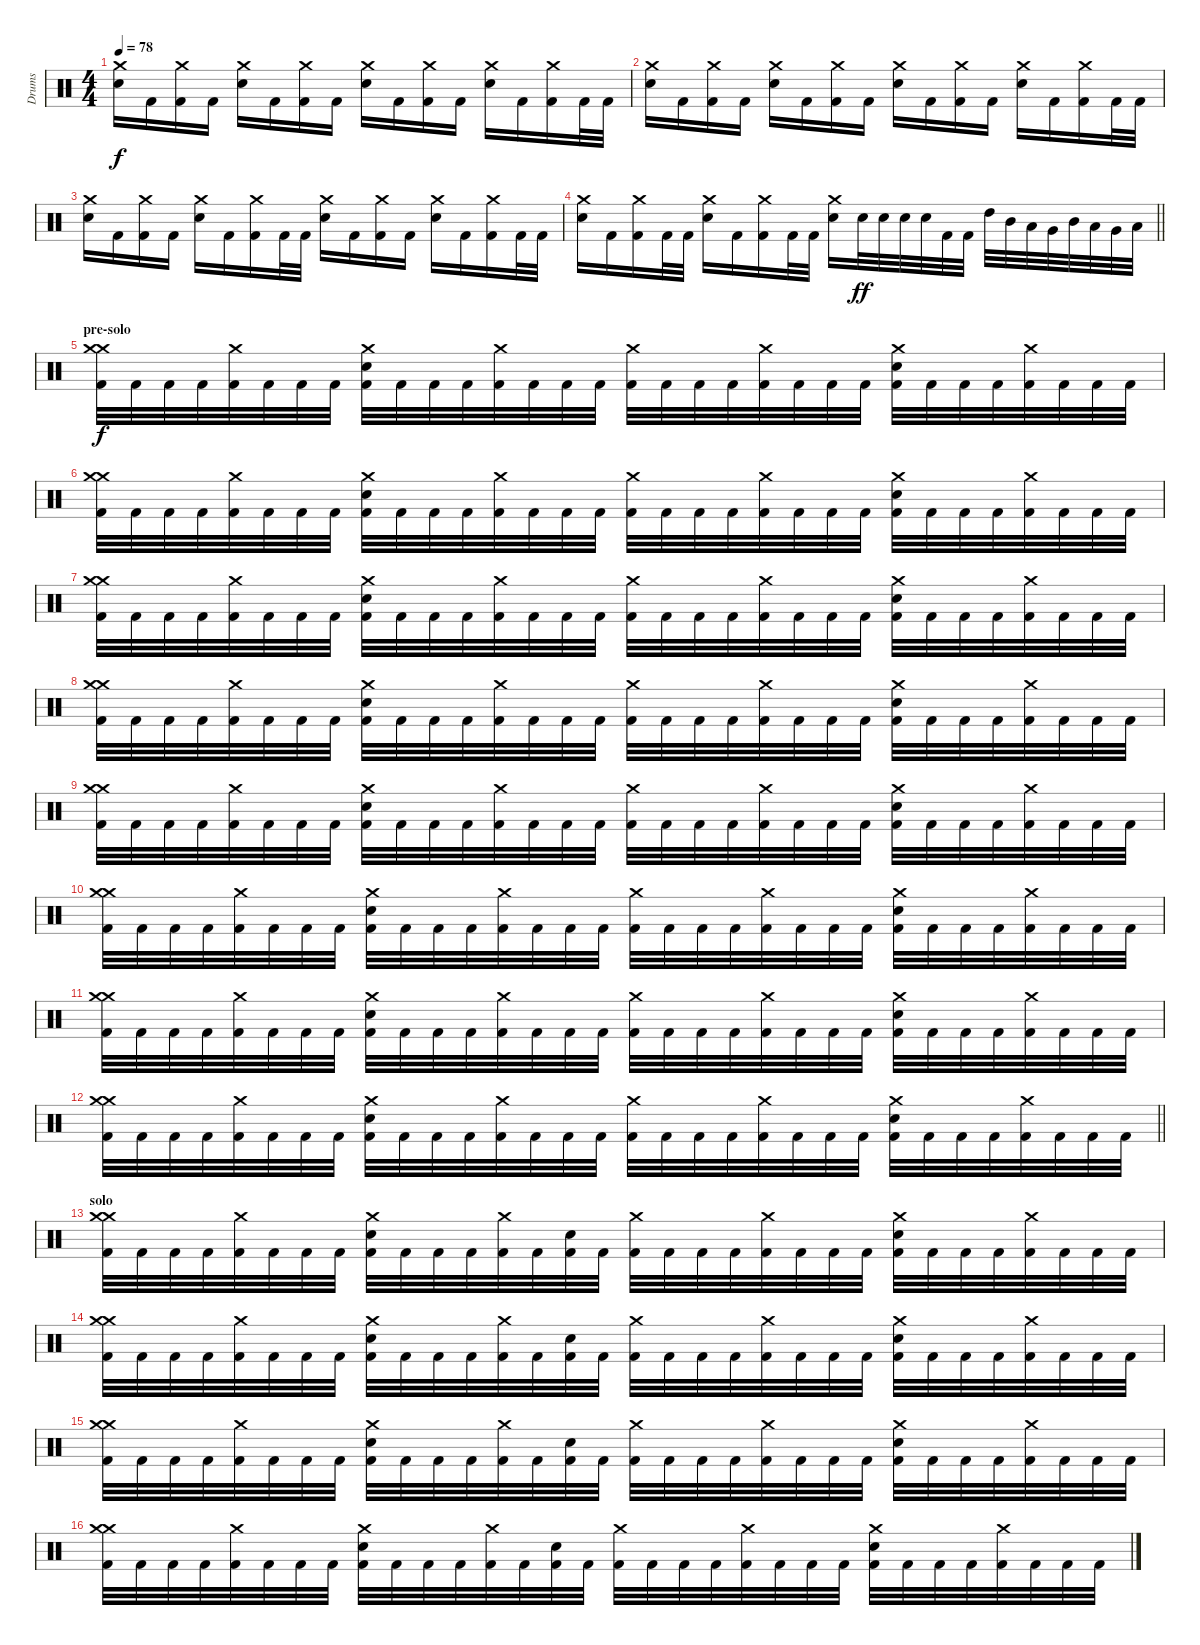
\track ("Drums" "Drums") {instrument percussion}
\staff {score}
\articulation defaults
\ts (4 4)
\tempo 78
\clef neutral
\ks c
("Electric Snare (hit)" "Crash medium (hit)").16{dy f} "Kick (hit) 2".16 ("Kick (hit) 2" "Crash medium (hit)").16 "Kick (hit) 2".16 ("Electric Snare (hit)" "Crash medium (hit)").16 "Kick (hit) 2".16 ("Kick (hit) 2" "Crash medium (hit)").16 "Kick (hit) 2".16 ("Electric Snare (hit)" "Crash medium (hit)").16 "Kick (hit) 2".16 ("Kick (hit) 2" "Crash medium (hit)").16 "Kick (hit) 2".16 ("Electric Snare (hit)" "Crash medium (hit)").16 "Kick (hit) 2".16 ("Kick (hit) 2" "Crash medium (hit)").16 "Kick (hit) 2".32 "Kick (hit) 2".32 |
("Electric Snare (hit)" "Crash medium (hit)").16 "Kick (hit) 2".16 ("Kick (hit) 2" "Crash medium (hit)").16 "Kick (hit) 2".16 ("Electric Snare (hit)" "Crash medium (hit)").16 "Kick (hit) 2".16 ("Kick (hit) 2" "Crash medium (hit)").16 "Kick (hit) 2".16 ("Electric Snare (hit)" "Crash medium (hit)").16 "Kick (hit) 2".16 ("Kick (hit) 2" "Crash medium (hit)").16 "Kick (hit) 2".16 ("Electric Snare (hit)" "Crash medium (hit)").16 "Kick (hit) 2".16 ("Kick (hit) 2" "Crash medium (hit)").16 "Kick (hit) 2".32 "Kick (hit) 2".32 |
("Electric Snare (hit)" "Crash medium (hit)").16 "Kick (hit) 2".16 ("Kick (hit) 2" "Crash medium (hit)").16 "Kick (hit) 2".16 ("Electric Snare (hit)" "Crash medium (hit)").16 "Kick (hit) 2".16 ("Kick (hit) 2" "Crash medium (hit)").16 "Kick (hit) 2".32 "Kick (hit) 2".32 ("Electric Snare (hit)" "Crash medium (hit)").16 "Kick (hit) 2".16 ("Kick (hit) 2" "Crash medium (hit)").16 "Kick (hit) 2".16 ("Electric Snare (hit)" "Crash medium (hit)").16 "Kick (hit) 2".16 ("Kick (hit) 2" "Crash medium (hit)").16 "Kick (hit) 2".32 "Kick (hit) 2".32 |
\barLineRight lightlight
("Electric Snare (hit)" "Crash medium (hit)").16 "Kick (hit) 2".16 ("Kick (hit) 2" "Crash medium (hit)").16 "Kick (hit) 2".32 "Kick (hit) 2".32 ("Electric Snare (hit)" "Crash medium (hit)").16 "Kick (hit) 2".16 ("Kick (hit) 2" "Crash medium (hit)").16 "Kick (hit) 2".32 "Kick (hit) 2".32 ("Electric Snare (hit)" "Crash medium (hit)").16 "Electric Snare (hit)".32{dy ff} "Electric Snare (hit)".32 "Electric Snare (hit)".32 "Electric Snare (hit)".32 "Kick (hit) 2".32 "Kick (hit) 2".32 "High Tom (hit)".32 "Mid Tom (hit)".32 "Low Tom (hit)".32 "Very Low Tom (hit)".32 "Mid Tom (hit)".32 "Low Tom (hit)".32 "Very Low Tom (hit)".32 "Low Floor Tom (hit)".32 |
\section ("" "pre-solo")
("Crash medium (hit)" "Kick (hit) 2" "Crash medium (hit)").32{dy f} "Kick (hit) 2".32 "Kick (hit) 2".32 "Kick (hit) 2".32 ("Kick (hit) 2" "Crash medium (hit)").32 "Kick (hit) 2".32 "Kick (hit) 2".32 "Kick (hit) 2".32 ("Electric Snare (hit)" "Kick (hit) 2" "Crash medium (hit)").32 "Kick (hit) 2".32 "Kick (hit) 2".32 "Kick (hit) 2".32 ("Kick (hit) 2" "Crash medium (hit)").32 "Kick (hit) 2".32 "Kick (hit) 2".32 "Kick (hit) 2".32 ("Kick (hit) 2" "Crash medium (hit)").32 "Kick (hit) 2".32 "Kick (hit) 2".32 "Kick (hit) 2".32 ("Kick (hit) 2" "Crash medium (hit)").32 "Kick (hit) 2".32 "Kick (hit) 2".32 "Kick (hit) 2".32 ("Electric Snare (hit)" "Kick (hit) 2" "Crash medium (hit)").32 "Kick (hit) 2".32 "Kick (hit) 2".32 "Kick (hit) 2".32 ("Kick (hit) 2" "Crash medium (hit)").32 "Kick (hit) 2".32 "Kick (hit) 2".32 "Kick (hit) 2".32 |
("Crash medium (hit)" "Kick (hit) 2" "Crash medium (hit)").32 "Kick (hit) 2".32 "Kick (hit) 2".32 "Kick (hit) 2".32 ("Kick (hit) 2" "Crash medium (hit)").32 "Kick (hit) 2".32 "Kick (hit) 2".32 "Kick (hit) 2".32 ("Electric Snare (hit)" "Kick (hit) 2" "Crash medium (hit)").32 "Kick (hit) 2".32 "Kick (hit) 2".32 "Kick (hit) 2".32 ("Kick (hit) 2" "Crash medium (hit)").32 "Kick (hit) 2".32 "Kick (hit) 2".32 "Kick (hit) 2".32 ("Kick (hit) 2" "Crash medium (hit)").32 "Kick (hit) 2".32 "Kick (hit) 2".32 "Kick (hit) 2".32 ("Kick (hit) 2" "Crash medium (hit)").32 "Kick (hit) 2".32 "Kick (hit) 2".32 "Kick (hit) 2".32 ("Electric Snare (hit)" "Kick (hit) 2" "Crash medium (hit)").32 "Kick (hit) 2".32 "Kick (hit) 2".32 "Kick (hit) 2".32 ("Kick (hit) 2" "Crash medium (hit)").32 "Kick (hit) 2".32 "Kick (hit) 2".32 "Kick (hit) 2".32 |
("Crash medium (hit)" "Kick (hit) 2" "Crash medium (hit)").32 "Kick (hit) 2".32 "Kick (hit) 2".32 "Kick (hit) 2".32 ("Kick (hit) 2" "Crash medium (hit)").32 "Kick (hit) 2".32 "Kick (hit) 2".32 "Kick (hit) 2".32 ("Electric Snare (hit)" "Kick (hit) 2" "Crash medium (hit)").32 "Kick (hit) 2".32 "Kick (hit) 2".32 "Kick (hit) 2".32 ("Kick (hit) 2" "Crash medium (hit)").32 "Kick (hit) 2".32 "Kick (hit) 2".32 "Kick (hit) 2".32 ("Kick (hit) 2" "Crash medium (hit)").32 "Kick (hit) 2".32 "Kick (hit) 2".32 "Kick (hit) 2".32 ("Kick (hit) 2" "Crash medium (hit)").32 "Kick (hit) 2".32 "Kick (hit) 2".32 "Kick (hit) 2".32 ("Electric Snare (hit)" "Kick (hit) 2" "Crash medium (hit)").32 "Kick (hit) 2".32 "Kick (hit) 2".32 "Kick (hit) 2".32 ("Kick (hit) 2" "Crash medium (hit)").32 "Kick (hit) 2".32 "Kick (hit) 2".32 "Kick (hit) 2".32 |
("Crash medium (hit)" "Kick (hit) 2" "Crash medium (hit)").32 "Kick (hit) 2".32 "Kick (hit) 2".32 "Kick (hit) 2".32 ("Kick (hit) 2" "Crash medium (hit)").32 "Kick (hit) 2".32 "Kick (hit) 2".32 "Kick (hit) 2".32 ("Electric Snare (hit)" "Kick (hit) 2" "Crash medium (hit)").32 "Kick (hit) 2".32 "Kick (hit) 2".32 "Kick (hit) 2".32 ("Kick (hit) 2" "Crash medium (hit)").32 "Kick (hit) 2".32 "Kick (hit) 2".32 "Kick (hit) 2".32 ("Kick (hit) 2" "Crash medium (hit)").32 "Kick (hit) 2".32 "Kick (hit) 2".32 "Kick (hit) 2".32 ("Kick (hit) 2" "Crash medium (hit)").32 "Kick (hit) 2".32 "Kick (hit) 2".32 "Kick (hit) 2".32 ("Electric Snare (hit)" "Kick (hit) 2" "Crash medium (hit)").32 "Kick (hit) 2".32 "Kick (hit) 2".32 "Kick (hit) 2".32 ("Kick (hit) 2" "Crash medium (hit)").32 "Kick (hit) 2".32 "Kick (hit) 2".32 "Kick (hit) 2".32 |
("Crash medium (hit)" "Kick (hit) 2" "Crash medium (hit)").32 "Kick (hit) 2".32 "Kick (hit) 2".32 "Kick (hit) 2".32 ("Kick (hit) 2" "Crash medium (hit)").32 "Kick (hit) 2".32 "Kick (hit) 2".32 "Kick (hit) 2".32 ("Electric Snare (hit)" "Kick (hit) 2" "Crash medium (hit)").32 "Kick (hit) 2".32 "Kick (hit) 2".32 "Kick (hit) 2".32 ("Kick (hit) 2" "Crash medium (hit)").32 "Kick (hit) 2".32 "Kick (hit) 2".32 "Kick (hit) 2".32 ("Kick (hit) 2" "Crash medium (hit)").32 "Kick (hit) 2".32 "Kick (hit) 2".32 "Kick (hit) 2".32 ("Kick (hit) 2" "Crash medium (hit)").32 "Kick (hit) 2".32 "Kick (hit) 2".32 "Kick (hit) 2".32 ("Electric Snare (hit)" "Kick (hit) 2" "Crash medium (hit)").32 "Kick (hit) 2".32 "Kick (hit) 2".32 "Kick (hit) 2".32 ("Kick (hit) 2" "Crash medium (hit)").32 "Kick (hit) 2".32 "Kick (hit) 2".32 "Kick (hit) 2".32 |
("Crash medium (hit)" "Kick (hit) 2" "Crash medium (hit)").32 "Kick (hit) 2".32 "Kick (hit) 2".32 "Kick (hit) 2".32 ("Kick (hit) 2" "Crash medium (hit)").32 "Kick (hit) 2".32 "Kick (hit) 2".32 "Kick (hit) 2".32 ("Electric Snare (hit)" "Kick (hit) 2" "Crash medium (hit)").32 "Kick (hit) 2".32 "Kick (hit) 2".32 "Kick (hit) 2".32 ("Kick (hit) 2" "Crash medium (hit)").32 "Kick (hit) 2".32 "Kick (hit) 2".32 "Kick (hit) 2".32 ("Kick (hit) 2" "Crash medium (hit)").32 "Kick (hit) 2".32 "Kick (hit) 2".32 "Kick (hit) 2".32 ("Kick (hit) 2" "Crash medium (hit)").32 "Kick (hit) 2".32 "Kick (hit) 2".32 "Kick (hit) 2".32 ("Electric Snare (hit)" "Kick (hit) 2" "Crash medium (hit)").32 "Kick (hit) 2".32 "Kick (hit) 2".32 "Kick (hit) 2".32 ("Kick (hit) 2" "Crash medium (hit)").32 "Kick (hit) 2".32 "Kick (hit) 2".32 "Kick (hit) 2".32 |
("Crash medium (hit)" "Kick (hit) 2" "Crash medium (hit)").32 "Kick (hit) 2".32 "Kick (hit) 2".32 "Kick (hit) 2".32 ("Kick (hit) 2" "Crash medium (hit)").32 "Kick (hit) 2".32 "Kick (hit) 2".32 "Kick (hit) 2".32 ("Electric Snare (hit)" "Kick (hit) 2" "Crash medium (hit)").32 "Kick (hit) 2".32 "Kick (hit) 2".32 "Kick (hit) 2".32 ("Kick (hit) 2" "Crash medium (hit)").32 "Kick (hit) 2".32 "Kick (hit) 2".32 "Kick (hit) 2".32 ("Kick (hit) 2" "Crash medium (hit)").32 "Kick (hit) 2".32 "Kick (hit) 2".32 "Kick (hit) 2".32 ("Kick (hit) 2" "Crash medium (hit)").32 "Kick (hit) 2".32 "Kick (hit) 2".32 "Kick (hit) 2".32 ("Electric Snare (hit)" "Kick (hit) 2" "Crash medium (hit)").32 "Kick (hit) 2".32 "Kick (hit) 2".32 "Kick (hit) 2".32 ("Kick (hit) 2" "Crash medium (hit)").32 "Kick (hit) 2".32 "Kick (hit) 2".32 "Kick (hit) 2".32 |
\barLineRight lightlight
("Crash medium (hit)" "Kick (hit) 2" "Crash medium (hit)").32 "Kick (hit) 2".32 "Kick (hit) 2".32 "Kick (hit) 2".32 ("Kick (hit) 2" "Crash medium (hit)").32 "Kick (hit) 2".32 "Kick (hit) 2".32 "Kick (hit) 2".32 ("Electric Snare (hit)" "Kick (hit) 2" "Crash medium (hit)").32 "Kick (hit) 2".32 "Kick (hit) 2".32 "Kick (hit) 2".32 ("Kick (hit) 2" "Crash medium (hit)").32 "Kick (hit) 2".32 "Kick (hit) 2".32 "Kick (hit) 2".32 ("Kick (hit) 2" "Crash medium (hit)").32 "Kick (hit) 2".32 "Kick (hit) 2".32 "Kick (hit) 2".32 ("Kick (hit) 2" "Crash medium (hit)").32 "Kick (hit) 2".32 "Kick (hit) 2".32 "Kick (hit) 2".32 ("Electric Snare (hit)" "Kick (hit) 2" "Crash medium (hit)").32 "Kick (hit) 2".32 "Kick (hit) 2".32 "Kick (hit) 2".32 ("Kick (hit) 2" "Crash medium (hit)").32 "Kick (hit) 2".32 "Kick (hit) 2".32 "Kick (hit) 2".32 |
\section ("" "solo")
("Crash medium (hit)" "Kick (hit) 2" "Crash medium (hit)").32 "Kick (hit) 2".32 "Kick (hit) 2".32 "Kick (hit) 2".32 ("Kick (hit) 2" "Crash medium (hit)").32 "Kick (hit) 2".32 "Kick (hit) 2".32 "Kick (hit) 2".32 ("Electric Snare (hit)" "Kick (hit) 2" "Crash medium (hit)").32 "Kick (hit) 2".32 "Kick (hit) 2".32 "Kick (hit) 2".32 ("Kick (hit) 2" "Crash medium (hit)").32 "Kick (hit) 2".32 ("Electric Snare (hit)" "Kick (hit) 2").32 "Kick (hit) 2".32 ("Kick (hit) 2" "Crash medium (hit)").32 "Kick (hit) 2".32 "Kick (hit) 2".32 "Kick (hit) 2".32 ("Kick (hit) 2" "Crash medium (hit)").32 "Kick (hit) 2".32 "Kick (hit) 2".32 "Kick (hit) 2".32 ("Electric Snare (hit)" "Kick (hit) 2" "Crash medium (hit)").32 "Kick (hit) 2".32 "Kick (hit) 2".32 "Kick (hit) 2".32 ("Kick (hit) 2" "Crash medium (hit)").32 "Kick (hit) 2".32 "Kick (hit) 2".32 "Kick (hit) 2".32 |
("Crash medium (hit)" "Kick (hit) 2" "Crash medium (hit)").32 "Kick (hit) 2".32 "Kick (hit) 2".32 "Kick (hit) 2".32 ("Kick (hit) 2" "Crash medium (hit)").32 "Kick (hit) 2".32 "Kick (hit) 2".32 "Kick (hit) 2".32 ("Electric Snare (hit)" "Kick (hit) 2" "Crash medium (hit)").32 "Kick (hit) 2".32 "Kick (hit) 2".32 "Kick (hit) 2".32 ("Kick (hit) 2" "Crash medium (hit)").32 "Kick (hit) 2".32 ("Electric Snare (hit)" "Kick (hit) 2").32 "Kick (hit) 2".32 ("Kick (hit) 2" "Crash medium (hit)").32 "Kick (hit) 2".32 "Kick (hit) 2".32 "Kick (hit) 2".32 ("Kick (hit) 2" "Crash medium (hit)").32 "Kick (hit) 2".32 "Kick (hit) 2".32 "Kick (hit) 2".32 ("Electric Snare (hit)" "Kick (hit) 2" "Crash medium (hit)").32 "Kick (hit) 2".32 "Kick (hit) 2".32 "Kick (hit) 2".32 ("Kick (hit) 2" "Crash medium (hit)").32 "Kick (hit) 2".32 "Kick (hit) 2".32 "Kick (hit) 2".32 |
("Crash medium (hit)" "Kick (hit) 2" "Crash medium (hit)").32 "Kick (hit) 2".32 "Kick (hit) 2".32 "Kick (hit) 2".32 ("Kick (hit) 2" "Crash medium (hit)").32 "Kick (hit) 2".32 "Kick (hit) 2".32 "Kick (hit) 2".32 ("Electric Snare (hit)" "Kick (hit) 2" "Crash medium (hit)").32 "Kick (hit) 2".32 "Kick (hit) 2".32 "Kick (hit) 2".32 ("Kick (hit) 2" "Crash medium (hit)").32 "Kick (hit) 2".32 ("Electric Snare (hit)" "Kick (hit) 2").32 "Kick (hit) 2".32 ("Kick (hit) 2" "Crash medium (hit)").32 "Kick (hit) 2".32 "Kick (hit) 2".32 "Kick (hit) 2".32 ("Kick (hit) 2" "Crash medium (hit)").32 "Kick (hit) 2".32 "Kick (hit) 2".32 "Kick (hit) 2".32 ("Electric Snare (hit)" "Kick (hit) 2" "Crash medium (hit)").32 "Kick (hit) 2".32 "Kick (hit) 2".32 "Kick (hit) 2".32 ("Kick (hit) 2" "Crash medium (hit)").32 "Kick (hit) 2".32 "Kick (hit) 2".32 "Kick (hit) 2".32 |
("Crash medium (hit)" "Kick (hit) 2" "Crash medium (hit)").32 "Kick (hit) 2".32 "Kick (hit) 2".32 "Kick (hit) 2".32 ("Kick (hit) 2" "Crash medium (hit)").32 "Kick (hit) 2".32 "Kick (hit) 2".32 "Kick (hit) 2".32 ("Electric Snare (hit)" "Kick (hit) 2" "Crash medium (hit)").32 "Kick (hit) 2".32 "Kick (hit) 2".32 "Kick (hit) 2".32 ("Kick (hit) 2" "Crash medium (hit)").32 "Kick (hit) 2".32 ("Electric Snare (hit)" "Kick (hit) 2").32 "Kick (hit) 2".32 ("Kick (hit) 2" "Crash medium (hit)").32 "Kick (hit) 2".32 "Kick (hit) 2".32 "Kick (hit) 2".32 ("Kick (hit) 2" "Crash medium (hit)").32 "Kick (hit) 2".32 "Kick (hit) 2".32 "Kick (hit) 2".32 ("Electric Snare (hit)" "Kick (hit) 2" "Crash medium (hit)").32 "Kick (hit) 2".32 "Kick (hit) 2".32 "Kick (hit) 2".32 ("Kick (hit) 2" "Crash medium (hit)").32 "Kick (hit) 2".32 "Kick (hit) 2".32 "Kick (hit) 2".32
